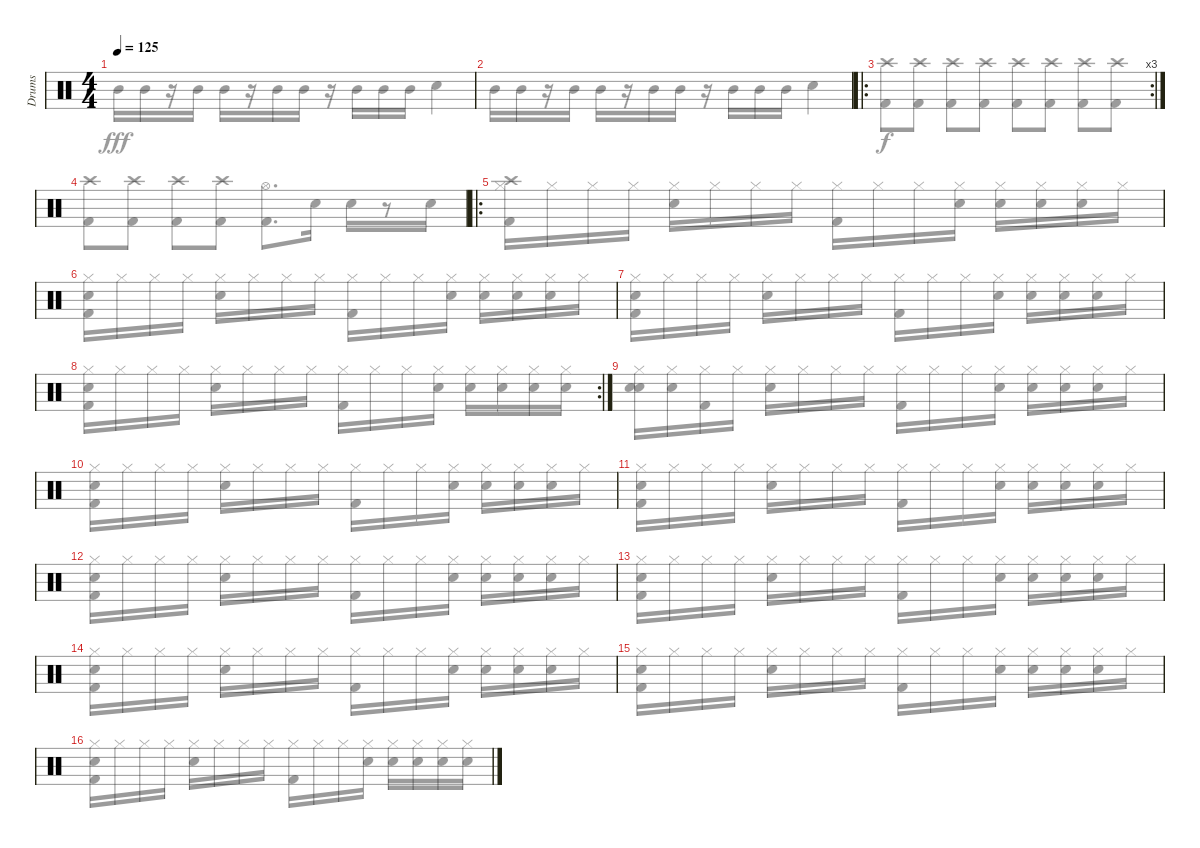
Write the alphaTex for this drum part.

\track ("Drums" "Drums") {instrument percussion}
\staff {score}
\articulation defaults
\voice
\ts (4 4)
\tempo 125
\clef neutral
\ks c
|
|
\ro
\rc 3
|
|
\ro
|
|
|
\rc 2
|
|
|
|
|
|
|
|
\voice
\clef neutral
\ks c "Mid Tom (hit)".16{dy fff} "Mid Tom (hit)".16
r.16 "Mid Tom (hit)".16 "Mid Tom (hit)".16 r.16 "Mid Tom (hit)".16 "Mid Tom (hit)".16 r.16 "Mid Tom (hit)".16 "Mid Tom (hit)".16 "Mid Tom (hit)".16 "Electric Snare (hit)".4 |
"Mid Tom (hit)".16 "Mid Tom (hit)".16 r.16 "Mid Tom (hit)".16 "Mid Tom (hit)".16 r.16 "Mid Tom (hit)".16 "Mid Tom (hit)".16 r.16 "Mid Tom (hit)".16 "Mid Tom (hit)".16 "Mid Tom (hit)".16 "Electric Snare (hit)".4 |
("Kick (hit) 2" "Crash high (hit)").8{dy f} ("Kick (hit) 2" "Crash high (hit)").8 ("Kick (hit) 2" "Crash high (hit)").8 ("Kick (hit) 2" "Crash high (hit)").8 ("Kick (hit) 2" "Crash high (hit)").8 ("Kick (hit) 2" "Crash high (hit)").8 ("Kick (hit) 2" "Crash high (hit)").8 ("Kick (hit) 2" "Crash high (hit)").8 |
("Kick (hit) 2" "Crash high (hit)").8 ("Kick (hit) 2" "Crash high (hit)").8 ("Kick (hit) 2" "Crash high (hit)").8 ("Kick (hit) 2" "Crash high (hit)").8 ("Kick (hit) 2" "Hi-Hat (open)").8{d} "Electric Snare (hit)".16 "Electric Snare (hit)".16 r.8 "Electric Snare (hit)".16 |
("Hi-Hat (closed)" "Kick (hit) 2" "Crash high (hit)").16 "Hi-Hat (closed)".16 "Hi-Hat (closed)".16 "Hi-Hat (closed)".16 ("Hi-Hat (closed)" "Electric Snare (hit)").16 "Hi-Hat (closed)".16 "Hi-Hat (closed)".16 "Hi-Hat (closed)".16 ("Hi-Hat (closed)" "Kick (hit) 2").16 "Hi-Hat (closed)".16 "Hi-Hat (closed)".16 ("Hi-Hat (closed)" "Electric Snare (hit)").16 ("Hi-Hat (closed)" "Snare (hit)").16 ("Hi-Hat (closed)" "Electric Snare (hit)").16 ("Hi-Hat (closed)" "Snare (hit)").16 "Hi-Hat (closed)".16 |
("Hi-Hat (closed)" "Kick (hit) 2" "Snare (hit)").16 "Hi-Hat (closed)".16 "Hi-Hat (closed)".16 "Hi-Hat (closed)".16 ("Hi-Hat (closed)" "Electric Snare (hit)").16 "Hi-Hat (closed)".16 "Hi-Hat (closed)".16 "Hi-Hat (closed)".16 ("Hi-Hat (closed)" "Kick (hit) 2").16 "Hi-Hat (closed)".16 "Hi-Hat (closed)".16 ("Hi-Hat (closed)" "Electric Snare (hit)").16 ("Hi-Hat (closed)" "Snare (hit)").16 ("Hi-Hat (closed)" "Electric Snare (hit)").16 ("Hi-Hat (closed)" "Snare (hit)").16 "Hi-Hat (closed)".16 |
("Hi-Hat (closed)" "Kick (hit) 2" "Snare (hit)").16 "Hi-Hat (closed)".16 "Hi-Hat (closed)".16 "Hi-Hat (closed)".16 ("Hi-Hat (closed)" "Electric Snare (hit)").16 "Hi-Hat (closed)".16 "Hi-Hat (closed)".16 "Hi-Hat (closed)".16 ("Hi-Hat (closed)" "Kick (hit) 2").16 "Hi-Hat (closed)".16 "Hi-Hat (closed)".16 ("Hi-Hat (closed)" "Electric Snare (hit)").16 ("Hi-Hat (closed)" "Snare (hit)").16 ("Hi-Hat (closed)" "Electric Snare (hit)").16 ("Hi-Hat (closed)" "Snare (hit)").16 "Hi-Hat (closed)".16 |
("Hi-Hat (closed)" "Kick (hit) 2" "Snare (hit)").16 "Hi-Hat (closed)".16 "Hi-Hat (closed)".16 "Hi-Hat (closed)".16 ("Hi-Hat (closed)" "Electric Snare (hit)").16 "Hi-Hat (closed)".16 "Hi-Hat (closed)".16 "Hi-Hat (closed)".16 ("Hi-Hat (closed)" "Kick (hit) 2").16 "Hi-Hat (closed)".16 "Hi-Hat (closed)".16 ("Hi-Hat (closed)" "Electric Snare (hit)").16 ("Hi-Hat (closed)" "Snare (hit)").16 ("Hi-Hat (closed)" "Electric Snare (hit)").16 ("Hi-Hat (closed)" "Snare (hit)").16 ("Hi-Hat (closed)" "Electric Snare (hit)").16 |
("Hi-Hat (closed)" "Electric Snare (hit)" "Snare (hit)").16 ("Hi-Hat (closed)" "Electric Snare (hit)").16 ("Hi-Hat (closed)" "Kick (hit) 2").16 "Hi-Hat (closed)".16 ("Hi-Hat (closed)" "Electric Snare (hit)").16 "Hi-Hat (closed)".16 "Hi-Hat (closed)".16 "Hi-Hat (closed)".16 ("Hi-Hat (closed)" "Kick (hit) 2").16 "Hi-Hat (closed)".16 "Hi-Hat (closed)".16 ("Hi-Hat (closed)" "Electric Snare (hit)").16 ("Hi-Hat (closed)" "Snare (hit)").16 ("Hi-Hat (closed)" "Electric Snare (hit)").16 ("Hi-Hat (closed)" "Snare (hit)").16 "Hi-Hat (closed)".16 |
("Hi-Hat (closed)" "Kick (hit) 2" "Snare (hit)").16 "Hi-Hat (closed)".16 "Hi-Hat (closed)".16 "Hi-Hat (closed)".16 ("Hi-Hat (closed)" "Electric Snare (hit)").16 "Hi-Hat (closed)".16 "Hi-Hat (closed)".16 "Hi-Hat (closed)".16 ("Hi-Hat (closed)" "Kick (hit) 2").16 "Hi-Hat (closed)".16 "Hi-Hat (closed)".16 ("Hi-Hat (closed)" "Electric Snare (hit)").16 ("Hi-Hat (closed)" "Snare (hit)").16 ("Hi-Hat (closed)" "Electric Snare (hit)").16 ("Hi-Hat (closed)" "Snare (hit)").16 "Hi-Hat (closed)".16 |
("Hi-Hat (closed)" "Kick (hit) 2" "Snare (hit)").16 "Hi-Hat (closed)".16 "Hi-Hat (closed)".16 "Hi-Hat (closed)".16 ("Hi-Hat (closed)" "Electric Snare (hit)").16 "Hi-Hat (closed)".16 "Hi-Hat (closed)".16 "Hi-Hat (closed)".16 ("Hi-Hat (closed)" "Kick (hit) 2").16 "Hi-Hat (closed)".16 "Hi-Hat (closed)".16 ("Hi-Hat (closed)" "Electric Snare (hit)").16 ("Hi-Hat (closed)" "Snare (hit)").16 ("Hi-Hat (closed)" "Electric Snare (hit)").16 ("Hi-Hat (closed)" "Snare (hit)").16 "Hi-Hat (closed)".16 |
("Hi-Hat (closed)" "Kick (hit) 2" "Snare (hit)").16 "Hi-Hat (closed)".16 "Hi-Hat (closed)".16 "Hi-Hat (closed)".16 ("Hi-Hat (closed)" "Electric Snare (hit)").16 "Hi-Hat (closed)".16 "Hi-Hat (closed)".16 "Hi-Hat (closed)".16 ("Hi-Hat (closed)" "Kick (hit) 2").16 "Hi-Hat (closed)".16 "Hi-Hat (closed)".16 ("Hi-Hat (closed)" "Electric Snare (hit)").16 ("Hi-Hat (closed)" "Snare (hit)").16 ("Hi-Hat (closed)" "Electric Snare (hit)").16 ("Hi-Hat (closed)" "Snare (hit)").16 "Hi-Hat (closed)".16 |
("Hi-Hat (closed)" "Kick (hit) 2" "Snare (hit)").16 "Hi-Hat (closed)".16 "Hi-Hat (closed)".16 "Hi-Hat (closed)".16 ("Hi-Hat (closed)" "Electric Snare (hit)").16 "Hi-Hat (closed)".16 "Hi-Hat (closed)".16 "Hi-Hat (closed)".16 ("Hi-Hat (closed)" "Kick (hit) 2").16 "Hi-Hat (closed)".16 "Hi-Hat (closed)".16 ("Hi-Hat (closed)" "Electric Snare (hit)").16 ("Hi-Hat (closed)" "Snare (hit)").16 ("Hi-Hat (closed)" "Electric Snare (hit)").16 ("Hi-Hat (closed)" "Snare (hit)").16 "Hi-Hat (closed)".16 |
("Hi-Hat (closed)" "Kick (hit) 2" "Snare (hit)").16 "Hi-Hat (closed)".16 "Hi-Hat (closed)".16 "Hi-Hat (closed)".16 ("Hi-Hat (closed)" "Electric Snare (hit)").16 "Hi-Hat (closed)".16 "Hi-Hat (closed)".16 "Hi-Hat (closed)".16 ("Hi-Hat (closed)" "Kick (hit) 2").16 "Hi-Hat (closed)".16 "Hi-Hat (closed)".16 ("Hi-Hat (closed)" "Electric Snare (hit)").16 ("Hi-Hat (closed)" "Snare (hit)").16 ("Hi-Hat (closed)" "Electric Snare (hit)").16 ("Hi-Hat (closed)" "Snare (hit)").16 "Hi-Hat (closed)".16 |
("Hi-Hat (closed)" "Kick (hit) 2" "Snare (hit)").16 "Hi-Hat (closed)".16 "Hi-Hat (closed)".16 "Hi-Hat (closed)".16 ("Hi-Hat (closed)" "Electric Snare (hit)").16 "Hi-Hat (closed)".16 "Hi-Hat (closed)".16 "Hi-Hat (closed)".16 ("Hi-Hat (closed)" "Kick (hit) 2").16 "Hi-Hat (closed)".16 "Hi-Hat (closed)".16 ("Hi-Hat (closed)" "Electric Snare (hit)").16 ("Hi-Hat (closed)" "Snare (hit)").16 ("Hi-Hat (closed)" "Electric Snare (hit)").16 ("Hi-Hat (closed)" "Snare (hit)").16 "Hi-Hat (closed)".16 |
("Hi-Hat (closed)" "Kick (hit) 2" "Snare (hit)").16 "Hi-Hat (closed)".16 "Hi-Hat (closed)".16 "Hi-Hat (closed)".16 ("Hi-Hat (closed)" "Electric Snare (hit)").16 "Hi-Hat (closed)".16 "Hi-Hat (closed)".16 "Hi-Hat (closed)".16 ("Hi-Hat (closed)" "Kick (hit) 2").16 "Hi-Hat (closed)".16 "Hi-Hat (closed)".16 ("Hi-Hat (closed)" "Electric Snare (hit)").16 ("Hi-Hat (closed)" "Snare (hit)").16 ("Hi-Hat (closed)" "Electric Snare (hit)").16 ("Hi-Hat (closed)" "Electric Snare (hit)").16 ("Hi-Hat (closed)" "Electric Snare (hit)").16
